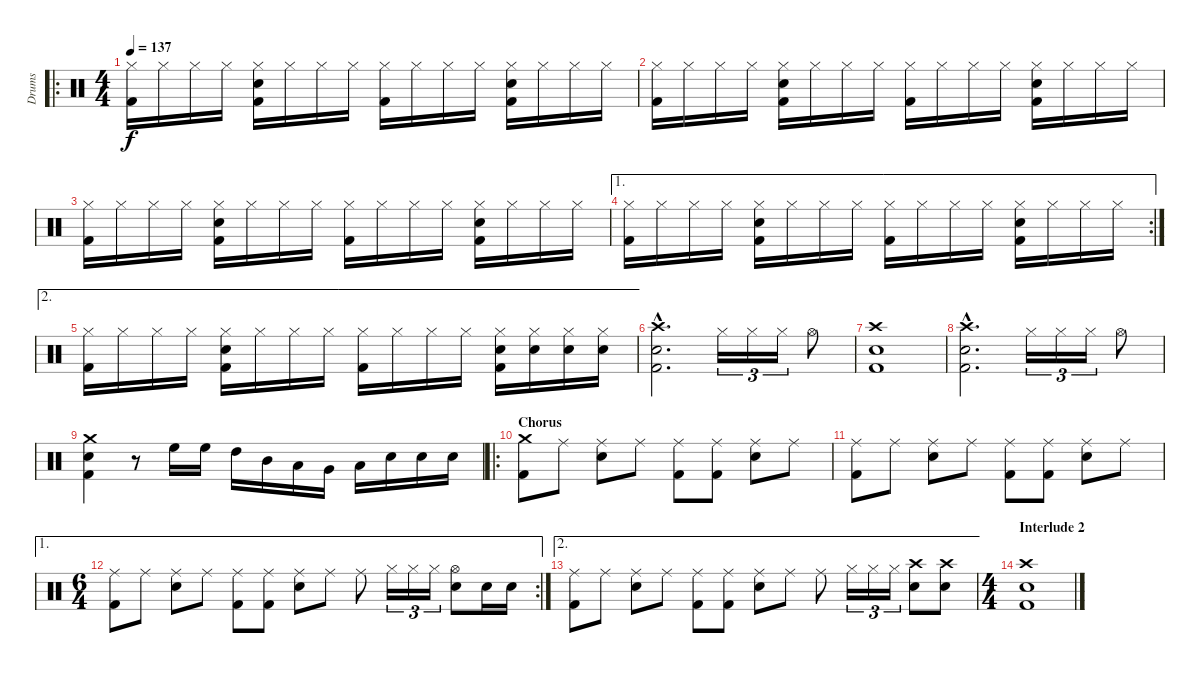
\track ("Drums" "Drums") {instrument percussion}
\staff {score}
\articulation defaults
\ro
\ts (4 4)
\tempo 137
\clef neutral
\ks c
("Hi-Hat (closed)" "Kick (hit) 2").16{dy f} "Hi-Hat (closed)".16 "Hi-Hat (closed)".16 "Hi-Hat (closed)".16 ("Hi-Hat (closed)" "Electric Snare (hit)" "Kick (hit) 2").16 "Hi-Hat (closed)".16 "Hi-Hat (closed)".16 "Hi-Hat (closed)".16 ("Hi-Hat (closed)" "Kick (hit) 2").16 "Hi-Hat (closed)".16 "Hi-Hat (closed)".16 "Hi-Hat (closed)".16 ("Hi-Hat (closed)" "Electric Snare (hit)" "Kick (hit) 2").16 "Hi-Hat (closed)".16 "Hi-Hat (closed)".16 "Hi-Hat (closed)".16 |
("Hi-Hat (closed)" "Kick (hit) 2").16 "Hi-Hat (closed)".16 "Hi-Hat (closed)".16 "Hi-Hat (closed)".16 ("Hi-Hat (closed)" "Electric Snare (hit)" "Kick (hit) 2").16 "Hi-Hat (closed)".16 "Hi-Hat (closed)".16 "Hi-Hat (closed)".16 ("Hi-Hat (closed)" "Kick (hit) 2").16 "Hi-Hat (closed)".16 "Hi-Hat (closed)".16 "Hi-Hat (closed)".16 ("Hi-Hat (closed)" "Electric Snare (hit)" "Kick (hit) 2").16 "Hi-Hat (closed)".16 "Hi-Hat (closed)".16 "Hi-Hat (closed)".16 |
("Hi-Hat (closed)" "Kick (hit) 2").16 "Hi-Hat (closed)".16 "Hi-Hat (closed)".16 "Hi-Hat (closed)".16 ("Hi-Hat (closed)" "Electric Snare (hit)" "Kick (hit) 2").16 "Hi-Hat (closed)".16 "Hi-Hat (closed)".16 "Hi-Hat (closed)".16 ("Hi-Hat (closed)" "Kick (hit) 2").16 "Hi-Hat (closed)".16 "Hi-Hat (closed)".16 "Hi-Hat (closed)".16 ("Hi-Hat (closed)" "Electric Snare (hit)" "Kick (hit) 2").16 "Hi-Hat (closed)".16 "Hi-Hat (closed)".16 "Hi-Hat (closed)".16 |
\ae 1
\rc 2
("Hi-Hat (closed)" "Kick (hit) 2").16 "Hi-Hat (closed)".16 "Hi-Hat (closed)".16 "Hi-Hat (closed)".16 ("Hi-Hat (closed)" "Electric Snare (hit)" "Kick (hit) 2").16 "Hi-Hat (closed)".16 "Hi-Hat (closed)".16 "Hi-Hat (closed)".16 ("Hi-Hat (closed)" "Kick (hit) 2").16 "Hi-Hat (closed)".16 "Hi-Hat (closed)".16 "Hi-Hat (closed)".16 ("Hi-Hat (closed)" "Electric Snare (hit)" "Kick (hit) 2").16 "Hi-Hat (closed)".16 "Hi-Hat (closed)".16 "Hi-Hat (closed)".16 |
\ae 2
("Hi-Hat (closed)" "Kick (hit) 2").16 "Hi-Hat (closed)".16 "Hi-Hat (closed)".16 "Hi-Hat (closed)".16 ("Hi-Hat (closed)" "Electric Snare (hit)" "Kick (hit) 2").16 "Hi-Hat (closed)".16 "Hi-Hat (closed)".16 "Hi-Hat (closed)".16 ("Hi-Hat (closed)" "Kick (hit) 2").16 "Hi-Hat (closed)".16 "Hi-Hat (closed)".16 "Hi-Hat (closed)".16 ("Hi-Hat (closed)" "Electric Snare (hit)" "Kick (hit) 2").16 ("Hi-Hat (closed)" "Electric Snare (hit)").16 ("Hi-Hat (closed)" "Electric Snare (hit)").16 ("Hi-Hat (closed)" "Electric Snare (hit)").16 |
("Crash high (hit)"{hac} "Kick (hit) 2"{hac} "Electric Snare (hit)"{hac}).2{d} "Hi-Hat (closed)".16{tu (3 2)} "Hi-Hat (closed)".16{tu (3 2)} "Hi-Hat (closed)".16{tu (3 2)} "Hi-Hat (open)".8 |
("Crash high (hit)" "Kick (hit) 2" "Electric Snare (hit)").1 |
("Crash high (hit)"{hac} "Kick (hit) 2"{hac} "Electric Snare (hit)"{hac}).2{d} "Hi-Hat (closed)".16{tu (3 2)} "Hi-Hat (closed)".16{tu (3 2)} "Hi-Hat (closed)".16{tu (3 2)} "Hi-Hat (open)".8 |
("Crash medium (hit)" "Kick (hit) 2" "Electric Snare (hit)").4 r.8 "High Floor Tom (hit)".16 "High Floor Tom (hit)".16 "High Tom (hit)".16 "Mid Tom (hit)".16 "Low Tom (hit)".16 "Very Low Tom (hit)".16 "Low Floor Tom (hit)".16 "Electric Snare (hit)".16 "Electric Snare (hit)".16 "Electric Snare (hit)".16 |
\ro
\section ("" "Chorus")
("Crash medium (hit)" "Kick (hit) 2").8 "Ride (middle)".8 ("Ride (middle)" "Electric Snare (hit)").8 "Ride (middle)".8 ("Ride (middle)" "Kick (hit) 2").8 ("Ride (middle)" "Kick (hit) 2").8 ("Ride (middle)" "Electric Snare (hit)").8 "Ride (middle)".8 |
("Ride (middle)" "Kick (hit) 2").8 "Ride (middle)".8 ("Ride (middle)" "Electric Snare (hit)").8 "Ride (middle)".8 ("Ride (middle)" "Kick (hit) 2").8 ("Ride (middle)" "Kick (hit) 2").8 ("Ride (middle)" "Electric Snare (hit)").8 "Ride (middle)".8 |
\ae 1
\rc 2
\ts (6 4)
("Ride (middle)" "Kick (hit) 2").8 "Ride (middle)".8 ("Ride (middle)" "Electric Snare (hit)").8 "Ride (middle)".8 ("Ride (middle)" "Kick (hit) 2").8 ("Ride (middle)" "Kick (hit) 2").8 ("Ride (middle)" "Electric Snare (hit)").8 "Ride (middle)".8 "Ride (middle)".8 "Hi-Hat (closed)".16{tu (3 2)} "Hi-Hat (closed)".16{tu (3 2)} "Hi-Hat (closed)".16{tu (3 2)} ("Hi-Hat (open)" "Electric Snare (hit)").8 "Electric Snare (hit)".16 "Electric Snare (hit)".16 |
\ae 2
("Ride (middle)" "Kick (hit) 2").8 "Ride (middle)".8 ("Ride (middle)" "Electric Snare (hit)").8 "Ride (middle)".8 ("Ride (middle)" "Kick (hit) 2").8 ("Ride (middle)" "Kick (hit) 2").8 ("Ride (middle)" "Electric Snare (hit)").8 "Ride (middle)".8 "Ride (middle)".8 "Hi-Hat (closed)".16{tu (3 2)} "Hi-Hat (closed)".16{tu (3 2)} "Hi-Hat (closed)".16{tu (3 2)} ("Crash high (hit)" "Electric Snare (hit)").8 ("Crash high (hit)" "Electric Snare (hit)").8 |
\ts (4 4)
\section ("" "Interlude 2")
("Crash high (hit)" "Kick (hit) 2" "Electric Snare (hit)").1
